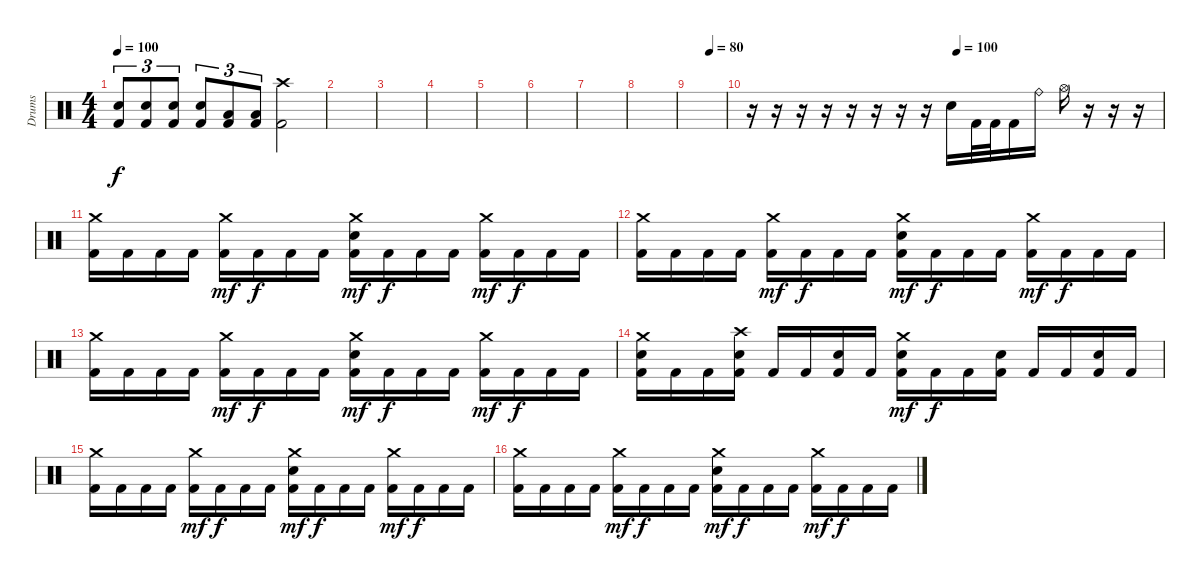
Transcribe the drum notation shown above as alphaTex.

\track ("Drums" "Drums") {instrument percussion}
\staff {score}
\articulation defaults
\ts (4 4)
\tempo 100
\clef neutral
\ks c
("Kick (hit) 2" "Electric Snare (hit)").8{tu (3 2) dy f} ("Kick (hit) 2" "Electric Snare (hit)").8{tu (3 2)} ("Kick (hit) 2" "Electric Snare (hit)").8{tu (3 2)} ("Kick (hit) 2" "Electric Snare (hit)").8{tu (3 2)} ("Kick (hit) 2" "Low Tom (hit)").8{tu (3 2)} ("Kick (hit) 2" "Low Tom (hit)").8{tu (3 2)} ("Kick (hit) 2" "Crash high (hit)").2 |
|
|
|
|
|
|
|
\tempo (80 0.5625)
|
\tempo (100 0.5)
r.16 r.16 r.16 r.16 r.16 r.16 r.16 r.16 "Electric Snare (hit)".16 "Kick (hit) 2".32 "Kick (hit) 2".32 "Kick (hit) 2".16 "Ride (bell)".16 "Hi-Hat (open)".16 r.16 r.16 r.16 |
("Kick (hit) 2" "Crash medium (hit)").16 "Kick (hit) 2".16 "Kick (hit) 2".16 "Kick (hit) 2".16 ("Kick (hit) 2" "Crash medium (hit)").16{dy mf} "Kick (hit) 2".16{dy f} "Kick (hit) 2".16 "Kick (hit) 2".16 ("Kick (hit) 2" "Crash medium (hit)" "Electric Snare (hit)").16{dy mf} "Kick (hit) 2".16{dy f} "Kick (hit) 2".16 "Kick (hit) 2".16 ("Kick (hit) 2" "Crash medium (hit)").16{dy mf} "Kick (hit) 2".16{dy f} "Kick (hit) 2".16 "Kick (hit) 2".16 |
("Kick (hit) 2" "Crash medium (hit)").16 "Kick (hit) 2".16 "Kick (hit) 2".16 "Kick (hit) 2".16 ("Kick (hit) 2" "Crash medium (hit)").16{dy mf} "Kick (hit) 2".16{dy f} "Kick (hit) 2".16 "Kick (hit) 2".16 ("Kick (hit) 2" "Crash medium (hit)" "Electric Snare (hit)").16{dy mf} "Kick (hit) 2".16{dy f} "Kick (hit) 2".16 "Kick (hit) 2".16 ("Kick (hit) 2" "Crash medium (hit)").16{dy mf} "Kick (hit) 2".16{dy f} "Kick (hit) 2".16 "Kick (hit) 2".16 |
("Kick (hit) 2" "Crash medium (hit)").16 "Kick (hit) 2".16 "Kick (hit) 2".16 "Kick (hit) 2".16 ("Kick (hit) 2" "Crash medium (hit)").16{dy mf} "Kick (hit) 2".16{dy f} "Kick (hit) 2".16 "Kick (hit) 2".16 ("Kick (hit) 2" "Crash medium (hit)" "Electric Snare (hit)").16{dy mf} "Kick (hit) 2".16{dy f} "Kick (hit) 2".16 "Kick (hit) 2".16 ("Kick (hit) 2" "Crash medium (hit)").16{dy mf} "Kick (hit) 2".16{dy f} "Kick (hit) 2".16 "Kick (hit) 2".16 |
("Kick (hit) 2" "Crash medium (hit)" "Electric Snare (hit)").16 "Kick (hit) 2".16 "Kick (hit) 2".16 ("Kick (hit) 2" "Electric Snare (hit)" "Crash high (hit)").16 "Kick (hit) 2".16 "Kick (hit) 2".16 ("Kick (hit) 2" "Electric Snare (hit)").16 "Kick (hit) 2".16 ("Kick (hit) 2" "Crash medium (hit)" "Electric Snare (hit)").16{dy mf} "Kick (hit) 2".16{dy f} "Kick (hit) 2".16 ("Kick (hit) 2" "Electric Snare (hit)").16 "Kick (hit) 2".16 "Kick (hit) 2".16 ("Kick (hit) 2" "Electric Snare (hit)").16 "Kick (hit) 2".16 |
("Kick (hit) 2" "Crash medium (hit)").16 "Kick (hit) 2".16 "Kick (hit) 2".16 "Kick (hit) 2".16 ("Kick (hit) 2" "Crash medium (hit)").16{dy mf} "Kick (hit) 2".16{dy f} "Kick (hit) 2".16 "Kick (hit) 2".16 ("Kick (hit) 2" "Crash medium (hit)" "Electric Snare (hit)").16{dy mf} "Kick (hit) 2".16{dy f} "Kick (hit) 2".16 "Kick (hit) 2".16 ("Kick (hit) 2" "Crash medium (hit)").16{dy mf} "Kick (hit) 2".16{dy f} "Kick (hit) 2".16 "Kick (hit) 2".16 |
("Kick (hit) 2" "Crash medium (hit)").16 "Kick (hit) 2".16 "Kick (hit) 2".16 "Kick (hit) 2".16 ("Kick (hit) 2" "Crash medium (hit)").16{dy mf} "Kick (hit) 2".16{dy f} "Kick (hit) 2".16 "Kick (hit) 2".16 ("Kick (hit) 2" "Crash medium (hit)" "Electric Snare (hit)").16{dy mf} "Kick (hit) 2".16{dy f} "Kick (hit) 2".16 "Kick (hit) 2".16 ("Kick (hit) 2" "Crash medium (hit)").16{dy mf} "Kick (hit) 2".16{dy f} "Kick (hit) 2".16 "Kick (hit) 2".16
